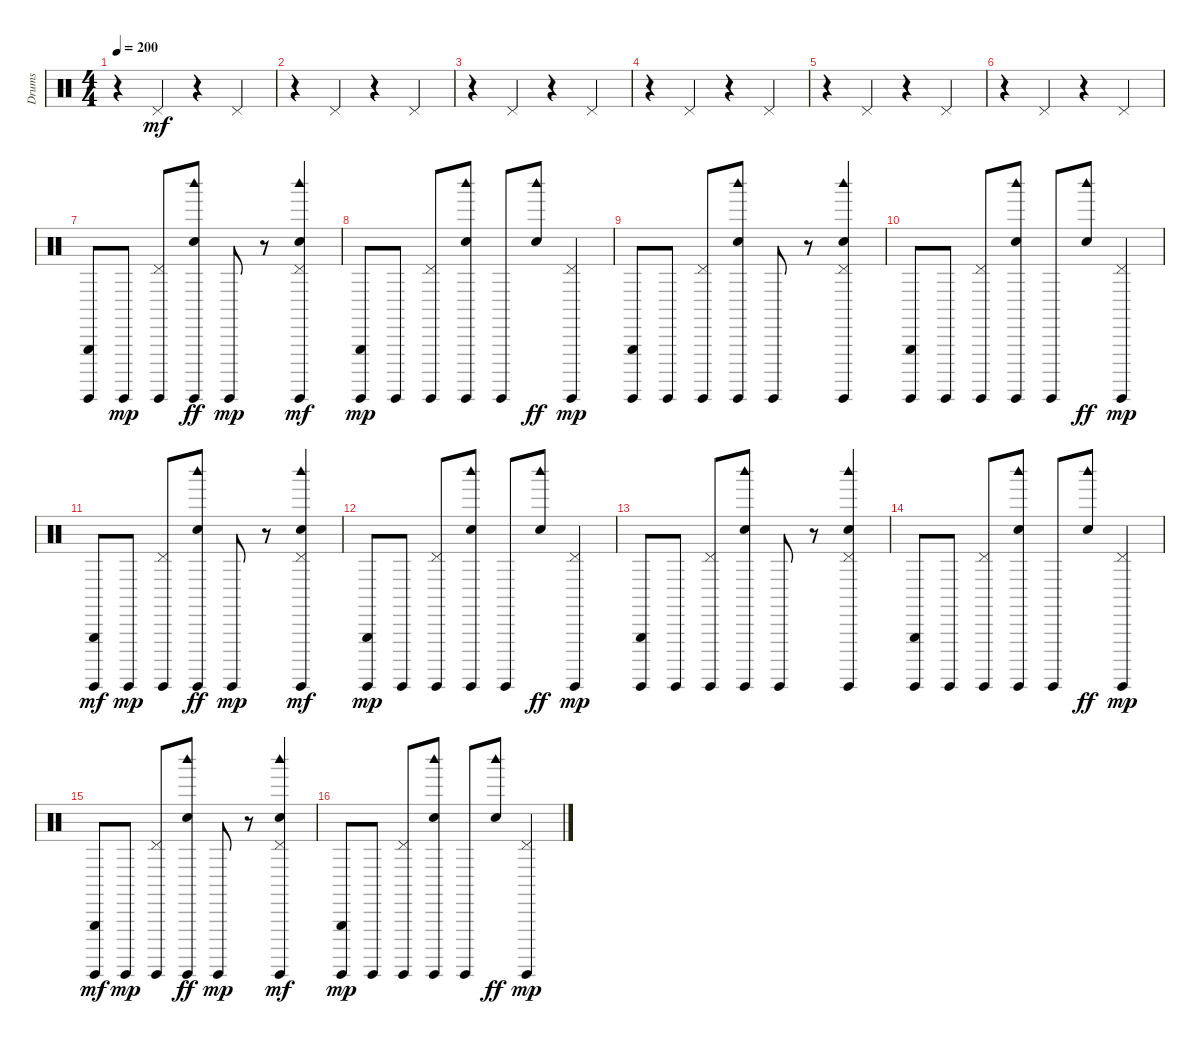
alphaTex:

\track ("Drums" "Drums") {instrument percussion}
\staff {score}
\articulation defaults
\ts (4 4)
\tempo 200
\clef neutral
\ks c
r.4{dy mf} "Pedal Hi-Hat (hit)".4 r.4 "Pedal Hi-Hat (hit)".4 |
r.4 "Pedal Hi-Hat (hit)".4 r.4 "Pedal Hi-Hat (hit)".4 |
r.4 "Pedal Hi-Hat (hit)".4 r.4 "Pedal Hi-Hat (hit)".4 |
r.4 "Pedal Hi-Hat (hit)".4 r.4 "Pedal Hi-Hat (hit)".4 |
r.4 "Pedal Hi-Hat (hit)".4 r.4 "Pedal Hi-Hat (hit)".4 |
r.4 "Pedal Hi-Hat (hit)".4 r.4 "Pedal Hi-Hat (hit)".4 |
("Guiro (hit)" "Triangle (hit)").8 "Guiro (hit)".8{dy mp} ("Pedal Hi-Hat (hit)" "Guiro (hit)").8 ("Guiro (hit)" "Woodblock high (hit)" "Hand Clap (hit)").8{dy ff} "Guiro (hit)".8{dy mp} r.8 ("Hand Clap (hit)" "Guiro (hit)" "Pedal Hi-Hat (hit)" "Woodblock high (hit)").4{dy mf} |
("Triangle (hit)" "Guiro (hit)").8{dy mp} "Guiro (hit)".8 ("Pedal Hi-Hat (hit)" "Guiro (hit)").8 ("Hand Clap (hit)" "Woodblock high (hit)" "Guiro (hit)").8 "Guiro (hit)".8 ("Hand Clap (hit)" "Woodblock high (hit)").8{dy ff} ("Pedal Hi-Hat (hit)" "Guiro (hit)").4{dy mp} |
("Triangle (hit)" "Guiro (hit)").8 "Guiro (hit)".8 ("Pedal Hi-Hat (hit)" "Guiro (hit)").8 ("Hand Clap (hit)" "Woodblock high (hit)" "Guiro (hit)").8 "Guiro (hit)".8 r.8 ("Hand Clap (hit)" "Woodblock high (hit)" "Pedal Hi-Hat (hit)" "Guiro (hit)").4 |
("Triangle (hit)" "Guiro (hit)").8 "Guiro (hit)".8 ("Pedal Hi-Hat (hit)" "Guiro (hit)").8 ("Hand Clap (hit)" "Woodblock high (hit)" "Guiro (hit)").8 "Guiro (hit)".8 ("Hand Clap (hit)" "Woodblock high (hit)").8{dy ff} ("Pedal Hi-Hat (hit)" "Guiro (hit)").4{dy mp} |
("Guiro (hit)" "Triangle (hit)").8{dy mf} "Guiro (hit)".8{dy mp} ("Pedal Hi-Hat (hit)" "Guiro (hit)").8 ("Guiro (hit)" "Woodblock high (hit)" "Hand Clap (hit)").8{dy ff} "Guiro (hit)".8{dy mp} r.8 ("Hand Clap (hit)" "Guiro (hit)" "Pedal Hi-Hat (hit)" "Woodblock high (hit)").4{dy mf} |
("Triangle (hit)" "Guiro (hit)").8{dy mp} "Guiro (hit)".8 ("Pedal Hi-Hat (hit)" "Guiro (hit)").8 ("Hand Clap (hit)" "Woodblock high (hit)" "Guiro (hit)").8 "Guiro (hit)".8 ("Hand Clap (hit)" "Woodblock high (hit)").8{dy ff} ("Pedal Hi-Hat (hit)" "Guiro (hit)").4{dy mp} |
("Triangle (hit)" "Guiro (hit)").8 "Guiro (hit)".8 ("Pedal Hi-Hat (hit)" "Guiro (hit)").8 ("Hand Clap (hit)" "Woodblock high (hit)" "Guiro (hit)").8 "Guiro (hit)".8 r.8 ("Hand Clap (hit)" "Woodblock high (hit)" "Pedal Hi-Hat (hit)" "Guiro (hit)").4 |
("Triangle (hit)" "Guiro (hit)").8 "Guiro (hit)".8 ("Pedal Hi-Hat (hit)" "Guiro (hit)").8 ("Hand Clap (hit)" "Woodblock high (hit)" "Guiro (hit)").8 "Guiro (hit)".8 ("Hand Clap (hit)" "Woodblock high (hit)").8{dy ff} ("Pedal Hi-Hat (hit)" "Guiro (hit)").4{dy mp} |
("Guiro (hit)" "Triangle (hit)").8{dy mf} "Guiro (hit)".8{dy mp} ("Pedal Hi-Hat (hit)" "Guiro (hit)").8 ("Guiro (hit)" "Woodblock high (hit)" "Hand Clap (hit)").8{dy ff} "Guiro (hit)".8{dy mp} r.8 ("Hand Clap (hit)" "Guiro (hit)" "Pedal Hi-Hat (hit)" "Woodblock high (hit)").4{dy mf} |
("Triangle (hit)" "Guiro (hit)").8{dy mp} "Guiro (hit)".8 ("Pedal Hi-Hat (hit)" "Guiro (hit)").8 ("Hand Clap (hit)" "Woodblock high (hit)" "Guiro (hit)").8 "Guiro (hit)".8 ("Hand Clap (hit)" "Woodblock high (hit)").8{dy ff} ("Pedal Hi-Hat (hit)" "Guiro (hit)").4{dy mp}
